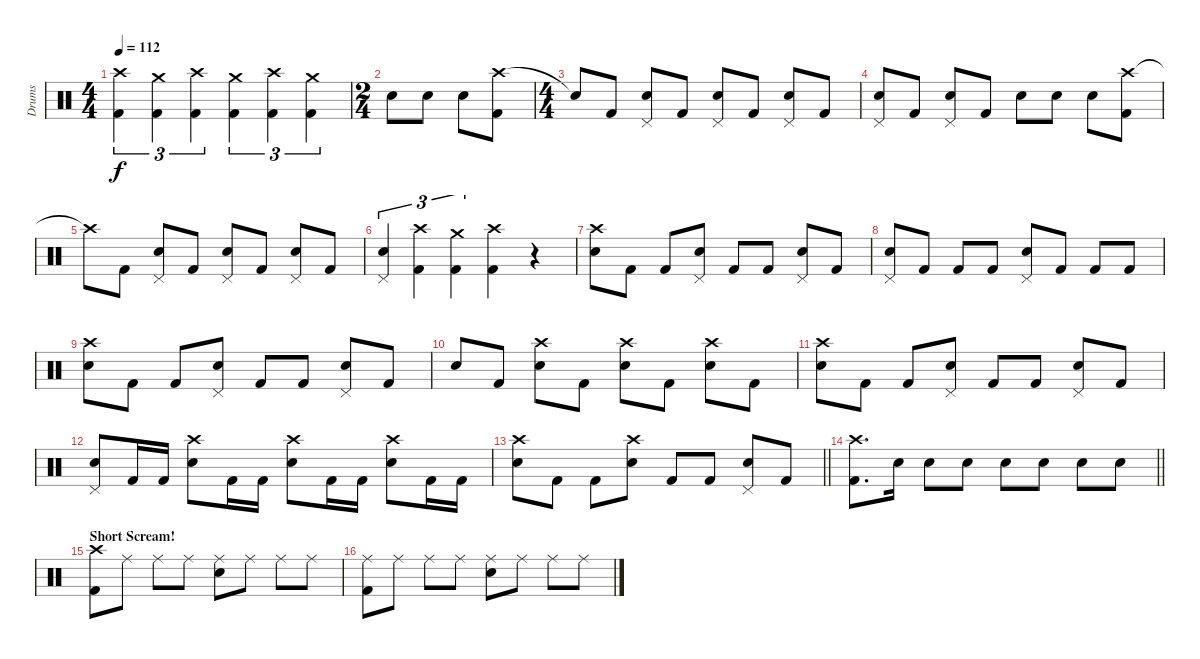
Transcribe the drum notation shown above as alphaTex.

\track ("Drums" "Drums") {instrument percussion}
\staff {score}
\articulation defaults
\ts (4 4)
\tempo 112
\clef neutral
\ks c
("Crash high (hit)" "Kick (hit) 2").4{tu (3 2) dy f} ("Crash medium (hit)" "Kick (hit) 2").4{tu (3 2)} ("Crash high (hit)" "Kick (hit) 2").4{tu (3 2)} ("Crash medium (hit)" "Kick (hit) 2").4{tu (3 2)} ("Crash high (hit)" "Kick (hit) 2").4{tu (3 2)} ("Crash medium (hit)" "Kick (hit) 2").4{tu (3 2)} |
\ts (2 4)
"Electric Snare (hit)".8 "Electric Snare (hit)".8 "Electric Snare (hit)".8 ("Crash high (hit)" "Kick (hit) 2").8 |
\ts (4 4)
"Snare (hit)"{t}.8 "Kick (hit) 2".8 ("Pedal Hi-Hat (hit)" "Electric Snare (hit)").8 "Kick (hit) 2".8 ("Pedal Hi-Hat (hit)" "Electric Snare (hit)").8 "Kick (hit) 2".8 ("Pedal Hi-Hat (hit)" "Electric Snare (hit)").8 "Kick (hit) 2".8 |
("Pedal Hi-Hat (hit)" "Electric Snare (hit)").8 "Kick (hit) 2".8 ("Pedal Hi-Hat (hit)" "Electric Snare (hit)").8 "Kick (hit) 2".8 "Electric Snare (hit)".8 "Electric Snare (hit)".8 "Electric Snare (hit)".8 ("Crash high (hit)" "Kick (hit) 2").8 |
"Crash high (hit)"{t}.8 "Kick (hit) 2".8 ("Pedal Hi-Hat (hit)" "Electric Snare (hit)").8 "Kick (hit) 2".8 ("Pedal Hi-Hat (hit)" "Electric Snare (hit)").8 "Kick (hit) 2".8 ("Pedal Hi-Hat (hit)" "Electric Snare (hit)").8 "Kick (hit) 2".8 |
("Pedal Hi-Hat (hit)" "Electric Snare (hit)").4{tu (3 2)} ("Crash high (hit)" "Kick (hit) 2").4{tu (3 2)} ("Crash medium (hit)" "Kick (hit) 2").4{tu (3 2)} ("Crash high (hit)" "Kick (hit) 2").4 r.4 |
("Crash high (hit)" "Electric Snare (hit)").8 "Kick (hit) 2".8 "Kick (hit) 2".8 ("Pedal Hi-Hat (hit)" "Electric Snare (hit)").8 "Kick (hit) 2".8 "Kick (hit) 2".8 ("Pedal Hi-Hat (hit)" "Electric Snare (hit)").8 "Kick (hit) 2".8 |
("Pedal Hi-Hat (hit)" "Electric Snare (hit)").8 "Kick (hit) 2".8 "Kick (hit) 2".8 "Kick (hit) 2".8 ("Pedal Hi-Hat (hit)" "Electric Snare (hit)").8 "Kick (hit) 2".8 "Kick (hit) 2".8 "Kick (hit) 2".8 |
("Crash high (hit)" "Electric Snare (hit)").8 "Kick (hit) 2".8 "Kick (hit) 2".8 ("Pedal Hi-Hat (hit)" "Electric Snare (hit)").8 "Kick (hit) 2".8 "Kick (hit) 2".8 ("Pedal Hi-Hat (hit)" "Electric Snare (hit)").8 "Kick (hit) 2".8 |
"Electric Snare (hit)".8 "Kick (hit) 2".8 ("Crash high (hit)" "Electric Snare (hit)").8 "Kick (hit) 2".8 ("Crash high (hit)" "Electric Snare (hit)").8 "Kick (hit) 2".8 ("Crash high (hit)" "Electric Snare (hit)").8 "Kick (hit) 2".8 |
("Crash high (hit)" "Electric Snare (hit)").8 "Kick (hit) 2".8 "Kick (hit) 2".8 ("Pedal Hi-Hat (hit)" "Electric Snare (hit)").8 "Kick (hit) 2".8 "Kick (hit) 2".8 ("Pedal Hi-Hat (hit)" "Electric Snare (hit)").8 "Kick (hit) 2".8 |
("Pedal Hi-Hat (hit)" "Electric Snare (hit)").8 "Kick (hit) 2".16 "Kick (hit) 2".16 ("Crash high (hit)" "Electric Snare (hit)").8 "Kick (hit) 2".16 "Kick (hit) 2".16 ("Crash high (hit)" "Electric Snare (hit)").8 "Kick (hit) 2".16 "Kick (hit) 2".16 ("Crash high (hit)" "Electric Snare (hit)").8 "Kick (hit) 2".16 "Kick (hit) 2".16 |
\barLineRight lightlight
("Crash high (hit)" "Electric Snare (hit)").8 "Kick (hit) 2".8 "Kick (hit) 2".8 ("Crash high (hit)" "Electric Snare (hit)").8 "Kick (hit) 2".8 "Kick (hit) 2".8 ("Pedal Hi-Hat (hit)" "Electric Snare (hit)").8 "Kick (hit) 2".8 |
\section ("" "")
\barLineRight lightlight
("Crash high (hit)" "Kick (hit) 2").8{d} "Electric Snare (hit)".16 "Electric Snare (hit)".8 "Electric Snare (hit)".8 "Electric Snare (hit)".8 "Electric Snare (hit)".8 "Electric Snare (hit)".8 "Electric Snare (hit)".8 |
\section ("" "Short Scream!")
("Crash high (hit)" "Kick (hit) 2").8 "Ride (middle)".8 "Ride (middle)".8 "Ride (middle)".8 ("Ride (middle)" "Electric Snare (hit)").8 "Ride (middle)".8 "Ride (middle)".8 "Ride (middle)".8 |
("Ride (middle)" "Kick (hit) 2").8 "Ride (middle)".8 "Ride (middle)".8 "Ride (middle)".8 ("Ride (middle)" "Electric Snare (hit)").8 "Ride (middle)".8 "Ride (middle)".8 "Ride (middle)".8
